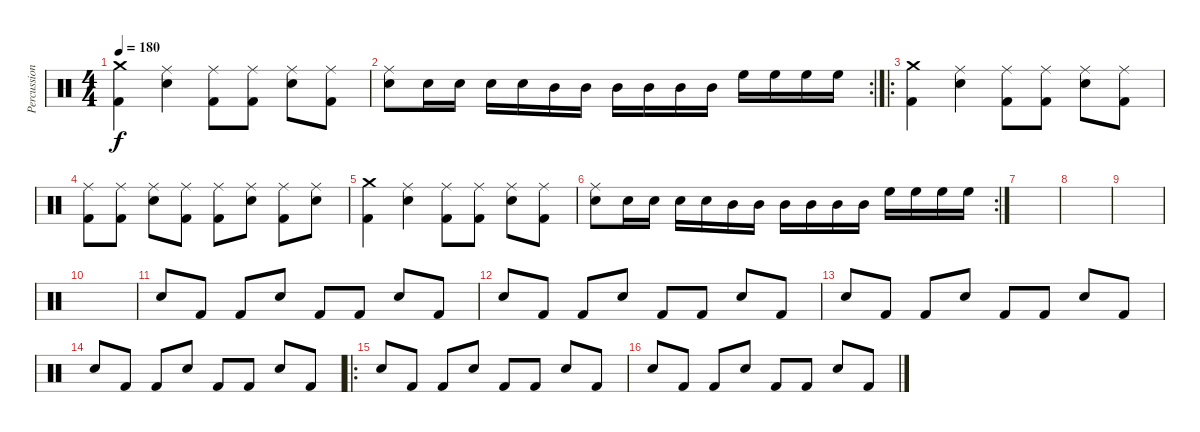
\track ("Percussions" "Percussion") {instrument percussion}
\staff {score}
\articulation defaults
\ts (4 4)
\tempo 180
\clef neutral
\ks c
("Crash medium (hit)" "Kick (hit) 2").4{dy f} ("Ride (middle)" "Electric Snare (hit)").4 ("Ride (middle)" "Kick (hit) 2").8 ("Ride (middle)" "Kick (hit) 2").8 ("Ride (middle)" "Electric Snare (hit)").8 ("Ride (middle)" "Kick (hit) 2").8 |
\rc 2
("Ride (middle)" "Electric Snare (hit)").8 "Electric Snare (hit)".16 "Electric Snare (hit)".16 "Electric Snare (hit)".16 "Electric Snare (hit)".16 "Mid Tom (hit)".16 "Mid Tom (hit)".16 "Mid Tom (hit)".16 "Mid Tom (hit)".16 "Mid Tom (hit)".16 "Mid Tom (hit)".16 "High Floor Tom (hit)".16 "High Floor Tom (hit)".16 "High Floor Tom (hit)".16 "High Floor Tom (hit)".16 |
\ro
("Crash medium (hit)" "Kick (hit) 2").4 ("Ride (middle)" "Electric Snare (hit)").4 ("Ride (middle)" "Kick (hit) 2").8 ("Ride (middle)" "Kick (hit) 2").8 ("Ride (middle)" "Electric Snare (hit)").8 ("Ride (middle)" "Kick (hit) 2").8 |
("Ride (middle)" "Kick (hit) 2").8 ("Ride (middle)" "Kick (hit) 2").8 ("Ride (middle)" "Electric Snare (hit)").8 ("Ride (middle)" "Kick (hit) 2").8 ("Ride (middle)" "Kick (hit) 2").8 ("Ride (middle)" "Electric Snare (hit)").8 ("Ride (middle)" "Kick (hit) 2").8 ("Ride (middle)" "Electric Snare (hit)").8 |
("Crash medium (hit)" "Kick (hit) 2").4 ("Ride (middle)" "Electric Snare (hit)").4 ("Ride (middle)" "Kick (hit) 2").8 ("Ride (middle)" "Kick (hit) 2").8 ("Ride (middle)" "Electric Snare (hit)").8 ("Ride (middle)" "Kick (hit) 2").8 |
\rc 2
("Ride (middle)" "Electric Snare (hit)").8 "Electric Snare (hit)".16 "Electric Snare (hit)".16 "Electric Snare (hit)".16 "Electric Snare (hit)".16 "Mid Tom (hit)".16 "Mid Tom (hit)".16 "Mid Tom (hit)".16 "Mid Tom (hit)".16 "Mid Tom (hit)".16 "Mid Tom (hit)".16 "High Floor Tom (hit)".16 "High Floor Tom (hit)".16 "High Floor Tom (hit)".16 "High Floor Tom (hit)".16 |
|
|
|
|
"Electric Snare (hit)".8 "Kick (hit) 2".8 "Kick (hit) 2".8 "Electric Snare (hit)".8 "Kick (hit) 2".8 "Kick (hit) 2".8 "Electric Snare (hit)".8 "Kick (hit) 2".8 |
"Electric Snare (hit)".8 "Kick (hit) 2".8 "Kick (hit) 2".8 "Electric Snare (hit)".8 "Kick (hit) 2".8 "Kick (hit) 2".8 "Electric Snare (hit)".8 "Kick (hit) 2".8 |
"Electric Snare (hit)".8 "Kick (hit) 2".8 "Kick (hit) 2".8 "Electric Snare (hit)".8 "Kick (hit) 2".8 "Kick (hit) 2".8 "Electric Snare (hit)".8 "Kick (hit) 2".8 |
"Electric Snare (hit)".8 "Kick (hit) 2".8 "Kick (hit) 2".8 "Electric Snare (hit)".8 "Kick (hit) 2".8 "Kick (hit) 2".8 "Electric Snare (hit)".8 "Kick (hit) 2".8 |
\ro "Electric Snare (hit)".8 "Kick (hit) 2".8 "Kick (hit) 2".8 "Electric Snare (hit)".8 "Kick (hit) 2".8 "Kick (hit) 2".8 "Electric Snare (hit)".8 "Kick (hit) 2".8
|
"Electric Snare (hit)".8 "Kick (hit) 2".8 "Kick (hit) 2".8 "Electric Snare (hit)".8 "Kick (hit) 2".8 "Kick (hit) 2".8 "Electric Snare (hit)".8 "Kick (hit) 2".8
